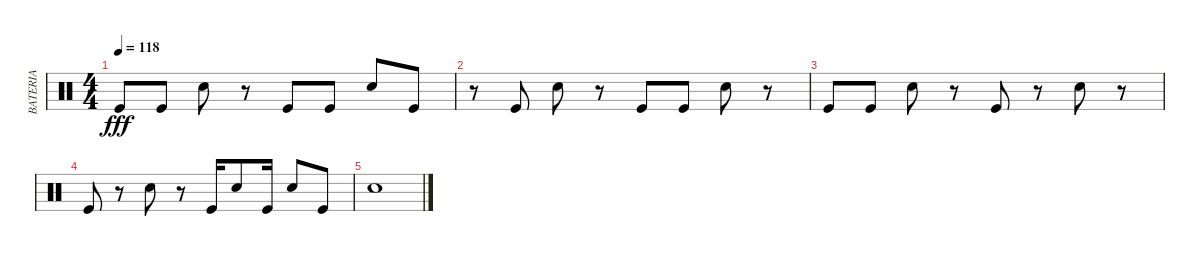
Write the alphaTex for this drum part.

\track ("BATERIA" "BATERIA") {instrument percussion}
\staff {score}
\articulation defaults
\ts (4 4)
\tempo 118
\clef neutral
\ks c "Kick (hit)".8{dy fff} "Kick (hit)".8 "Snare (hit) 2".8
r.8 "Kick (hit)".8 "Kick (hit)".8 "Snare (hit) 2".8 "Kick (hit)".8 |
r.8 "Kick (hit)".8 "Snare (hit) 2".8 r.8 "Kick (hit)".8 "Kick (hit)".8 "Snare (hit) 2".8 r.8 |
"Kick (hit)".8 "Kick (hit)".8 "Snare (hit) 2".8 r.8 "Kick (hit)".8 r.8 "Snare (hit) 2".8 r.8 |
"Kick (hit)".8 r.8 "Snare (hit) 2".8 r.8 "Kick (hit)".16 "Snare (hit) 2".8 "Kick (hit)".16 "Snare (hit) 2".8 "Kick (hit)".8 |
"Snare (hit) 2".1
